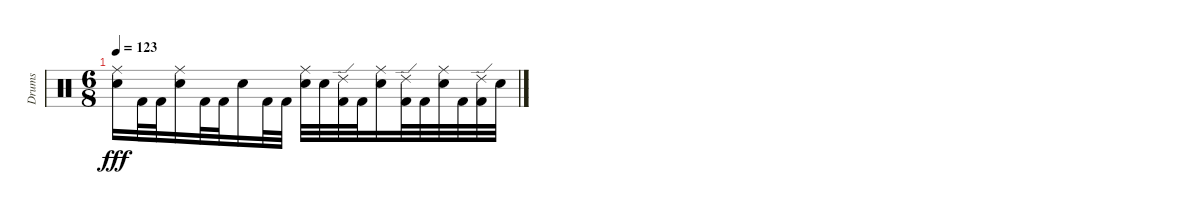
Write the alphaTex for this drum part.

\track ("Drums" "Drums") {instrument percussion}
\staff {score}
\articulation defaults
\ts (6 8)
\tempo 123
\clef neutral
\ks c
("Snare (hit) 2" "Ride (middle)").16{dy fff} "Kick (hit) 2".32 "Kick (hit) 2".32 ("Snare (hit) 2" "Ride (middle)").16 "Kick (hit) 2".32 "Kick (hit) 2".32 "Snare (hit) 2".16 "Kick (hit) 2".32 "Kick (hit) 2".32 ("Electric Snare (hit)" "Ride (middle)").32 "Electric Snare (hit)".32 ("Kick (hit) 2" "Ride (edge) 2").32 "Kick (hit) 2".32 ("Electric Snare (hit)" "Ride (middle)").16 ("Kick (hit) 2" "Ride (edge) 2").32 "Kick (hit) 2".32 ("Snare (hit) 2" "Ride (middle)").32 "Kick (hit) 2".32 ("Kick (hit) 2" "Ride (edge) 2").32 "Snare (hit) 2".32
